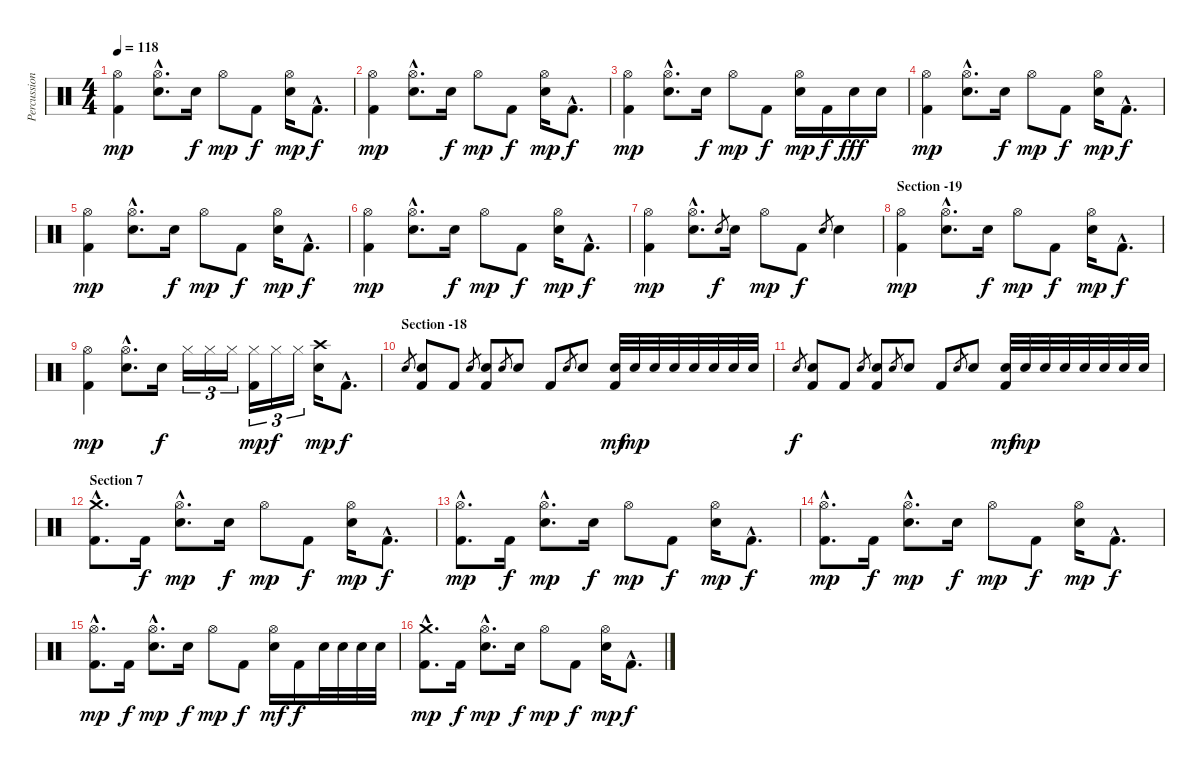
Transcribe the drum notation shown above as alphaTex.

\track ("Percussions" "Percussion") {instrument percussion}
\staff {score}
\articulation defaults
\ts (4 4)
\tempo 118
\clef neutral
\ks c
("Hi-Hat (open)" "Kick (hit) 2").4{dy mp} ("Hi-Hat (open)"{hac} "Snare (hit) 2"{hac}).8{d} "Snare (hit) 2".16{dy f} "Hi-Hat (open)".8{dy mp} "Kick (hit) 2".8{dy f} ("Hi-Hat (open)" "Snare (hit) 2").16{dy mp} "Kick (hit) 2"{hac}.8{d dy f} |
("Hi-Hat (open)" "Kick (hit) 2").4{dy mp} ("Hi-Hat (open)"{hac} "Snare (hit) 2"{hac}).8{d} "Snare (hit) 2".16{dy f} "Hi-Hat (open)".8{dy mp} "Kick (hit) 2".8{dy f} ("Hi-Hat (open)" "Snare (hit) 2").16{dy mp} "Kick (hit) 2"{hac}.8{d dy f} |
("Hi-Hat (open)" "Kick (hit) 2").4{dy mp} ("Hi-Hat (open)"{hac} "Snare (hit) 2"{hac}).8{d} "Snare (hit) 2".16{dy f} "Hi-Hat (open)".8{dy mp} "Kick (hit) 2".8{dy f} ("Hi-Hat (open)" "Snare (hit) 2").16{dy mp} "Kick (hit) 2".16{dy f} "Snare (hit) 2".16{dy fff} "Snare (hit) 2".16 |
("Hi-Hat (open)" "Kick (hit) 2").4{dy mp} ("Hi-Hat (open)"{hac} "Snare (hit) 2"{hac}).8{d} "Snare (hit) 2".16{dy f} "Hi-Hat (open)".8{dy mp} "Kick (hit) 2".8{dy f} ("Hi-Hat (open)" "Snare (hit) 2").16{dy mp} "Kick (hit) 2"{hac}.8{d dy f} |
("Hi-Hat (open)" "Kick (hit) 2").4{dy mp} ("Hi-Hat (open)"{hac} "Snare (hit) 2"{hac}).8{d} "Snare (hit) 2".16{dy f} "Hi-Hat (open)".8{dy mp} "Kick (hit) 2".8{dy f} ("Hi-Hat (open)" "Snare (hit) 2").16{dy mp} "Kick (hit) 2"{hac}.8{d dy f} |
("Hi-Hat (open)" "Kick (hit) 2").4{dy mp} ("Hi-Hat (open)"{hac} "Snare (hit) 2"{hac}).8{d} "Snare (hit) 2".16{dy f} "Hi-Hat (open)".8{dy mp} "Kick (hit) 2".8{dy f} ("Hi-Hat (open)" "Snare (hit) 2").16{dy mp} "Kick (hit) 2"{hac}.8{d dy f} |
("Hi-Hat (open)" "Kick (hit) 2").4{dy mp} ("Hi-Hat (open)"{hac} "Snare (hit) 2"{hac}).8{d} "Snare (hit) 2".8{gr dy f} "Snare (hit) 2".16 "Hi-Hat (open)".8{dy mp} "Kick (hit) 2".8{dy f} "Snare (hit) 2".8{gr} "Snare (hit) 2".4 |
\section ("" "Section -19")
("Hi-Hat (open)" "Kick (hit) 2").4{dy mp} ("Hi-Hat (open)"{hac} "Snare (hit) 2"{hac}).8{d} "Snare (hit) 2".16{dy f} "Hi-Hat (open)".8{dy mp} "Kick (hit) 2".8{dy f} ("Hi-Hat (open)" "Snare (hit) 2").16{dy mp} "Kick (hit) 2"{hac}.8{d dy f} |
("Hi-Hat (open)" "Kick (hit) 2").4{dy mp} ("Hi-Hat (open)"{hac} "Snare (hit) 2"{hac}).8{d} "Snare (hit) 2".16{dy f} "Hi-Hat (closed)".16{tu (3 2)} "Hi-Hat (closed)".16{tu (3 2)} "Hi-Hat (closed)".16{tu (3 2)} ("Hi-Hat (closed)" "Kick (hit) 2").16{tu (3 2) dy mp} "Hi-Hat (closed)".16{tu (3 2) dy f} "Hi-Hat (closed)".16{tu (3 2)} ("Crash high (hit)" "Snare (hit) 2").16{dy mp} "Kick (hit) 2"{hac}.8{d dy f} |
\section ("" "Section -18")
"Snare (hit) 2".8{gr} ("Snare (hit) 2" "Kick (hit) 2").8 "Kick (hit) 2".8 "Snare (hit) 2".8{gr} ("Snare (hit) 2" "Kick (hit) 2").8 "Snare (hit) 2".8{gr} "Snare (hit) 2".8 "Kick (hit) 2".8 "Snare (hit) 2".8{gr} "Snare (hit) 2".8 ("Snare (hit) 2" "Kick (hit) 2").32{dy mf} "Snare (hit) 2".32{dy mp} "Snare (hit) 2".32 "Snare (hit) 2".32 "Snare (hit) 2".32 "Snare (hit) 2".32 "Snare (hit) 2".32 "Snare (hit) 2".32 |
"Snare (hit) 2".8{gr dy f} ("Snare (hit) 2" "Kick (hit) 2").8 "Kick (hit) 2".8 "Snare (hit) 2".8{gr} ("Snare (hit) 2" "Kick (hit) 2").8 "Snare (hit) 2".8{gr} "Snare (hit) 2".8 "Kick (hit) 2".8 "Snare (hit) 2".8{gr} "Snare (hit) 2".8 ("Snare (hit) 2" "Kick (hit) 2").32{dy mf} "Snare (hit) 2".32{dy mp} "Snare (hit) 2".32 "Snare (hit) 2".32 "Snare (hit) 2".32 "Snare (hit) 2".32 "Snare (hit) 2".32 "Snare (hit) 2".32 |
\section ("" "Section 7")
("Crash medium (hit)"{hac} "Kick (hit) 2"{hac}).8{d} "Kick (hit) 2".16{dy f} ("Hi-Hat (open)"{hac} "Snare (hit) 2"{hac}).8{d dy mp} "Electric Snare (hit)".16{dy f} "Hi-Hat (open)".8{dy mp} "Kick (hit) 2".8{dy f} ("Hi-Hat (open)" "Snare (hit) 2").16{dy mp} "Kick (hit) 2"{hac}.8{d dy f} |
("Hi-Hat (open)"{hac} "Kick (hit) 2"{hac}).8{d dy mp} "Kick (hit) 2".16{dy f} ("Hi-Hat (open)"{hac} "Snare (hit) 2"{hac}).8{d dy mp} "Electric Snare (hit)".16{dy f} "Hi-Hat (open)".8{dy mp} "Kick (hit) 2".8{dy f} ("Hi-Hat (open)" "Snare (hit) 2").16{dy mp} "Kick (hit) 2"{hac}.8{d dy f} |
("Hi-Hat (open)"{hac} "Kick (hit) 2"{hac}).8{d dy mp} "Kick (hit) 2".16{dy f} ("Hi-Hat (open)"{hac} "Snare (hit) 2"{hac}).8{d dy mp} "Electric Snare (hit)".16{dy f} "Hi-Hat (open)".8{dy mp} "Kick (hit) 2".8{dy f} ("Hi-Hat (open)" "Snare (hit) 2").16{dy mp} "Kick (hit) 2"{hac}.8{d dy f} |
("Hi-Hat (open)"{hac} "Kick (hit) 2"{hac}).8{d dy mp} "Kick (hit) 2".16{dy f} ("Hi-Hat (open)"{hac} "Snare (hit) 2"{hac}).8{d dy mp} "Electric Snare (hit)".16{dy f} "Hi-Hat (open)".8{dy mp} "Kick (hit) 2".8{dy f} ("Hi-Hat (open)" "Snare (hit) 2").16{dy mf} "Kick (hit) 2".16{dy f} "Snare (hit) 2".32 "Snare (hit) 2".32 "Snare (hit) 2".32 "Snare (hit) 2".32 |
("Crash medium (hit)"{hac} "Kick (hit) 2"{hac}).8{d dy mp} "Kick (hit) 2".16{dy f} ("Hi-Hat (open)"{hac} "Snare (hit) 2"{hac}).8{d dy mp} "Electric Snare (hit)".16{dy f} "Hi-Hat (open)".8{dy mp} "Kick (hit) 2".8{dy f} ("Hi-Hat (open)" "Snare (hit) 2").16{dy mp} "Kick (hit) 2"{hac}.8{d dy f}
